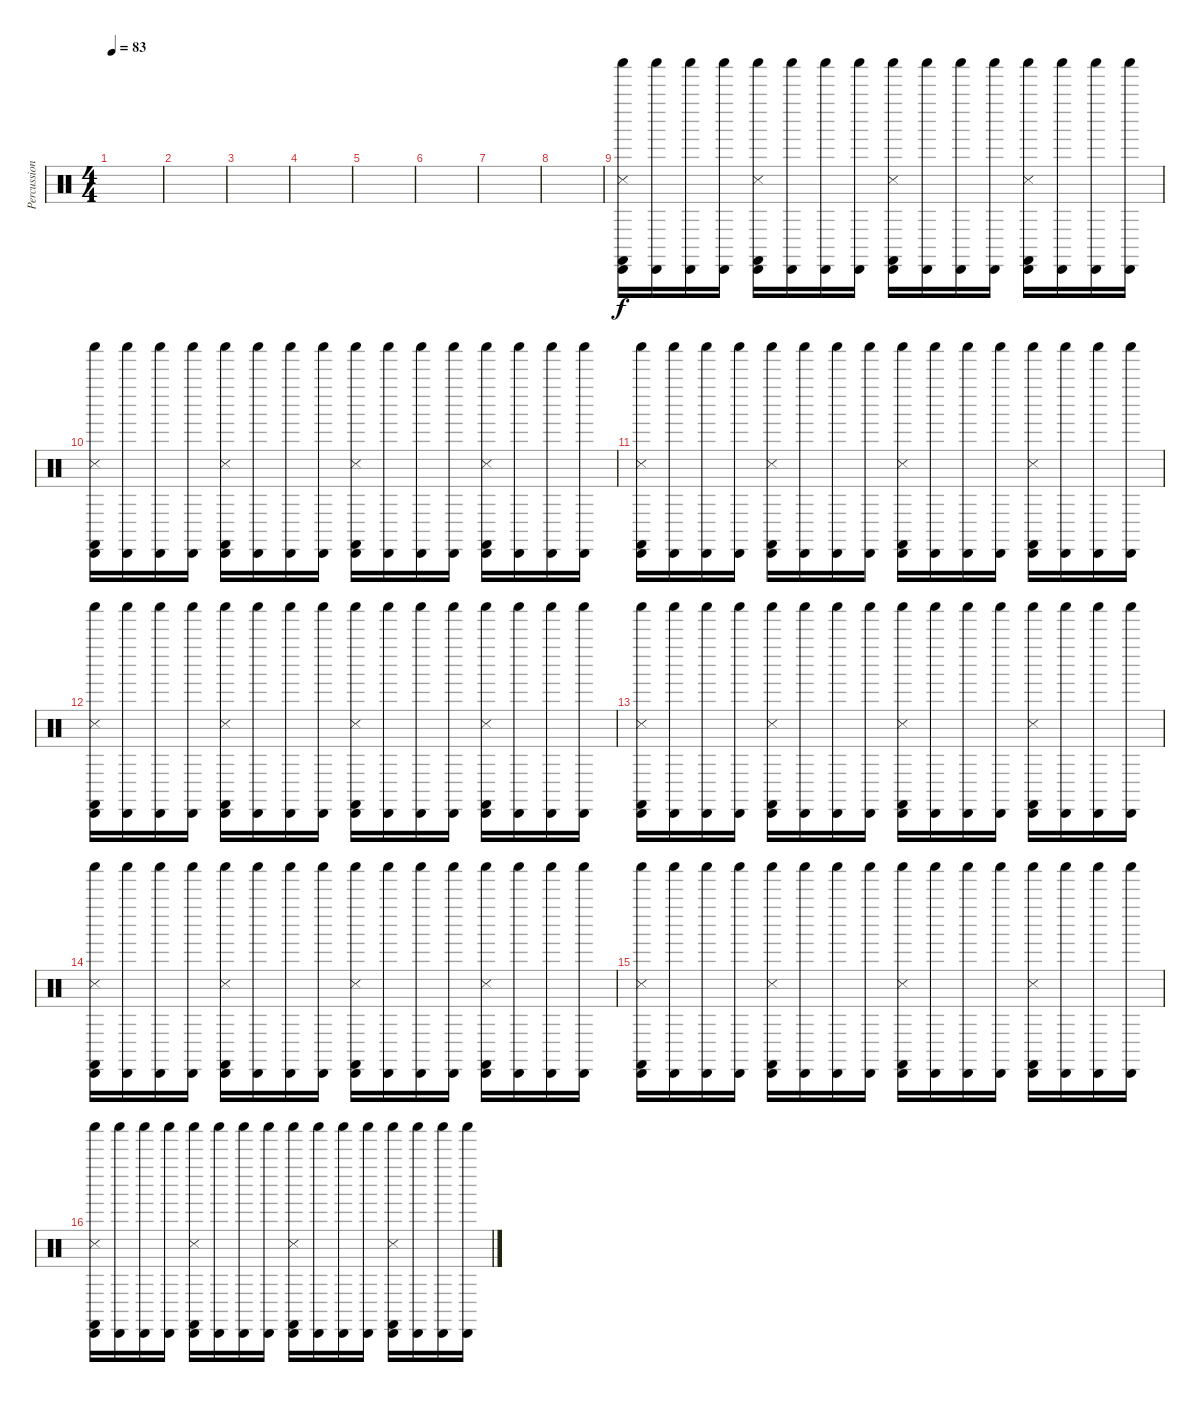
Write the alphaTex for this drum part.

\track ("Percussion" "Percussion") {instrument percussion}
\staff {score}
\articulation defaults
\ts (4 4)
\tempo 83
\clef neutral
\ks c
|
|
|
|
|
|
|
|
("Shaker (hit)" "Castanets (hit)" "Snare (side stick) 3" "Cabasa (hit)").16 ("Shaker (hit)" "Cabasa (hit)").16 ("Shaker (hit)" "Cabasa (hit)").16 ("Shaker (hit)" "Cabasa (hit)").16 ("Shaker (hit)" "Castanets (hit)" "Snare (side stick) 3" "Cabasa (hit)").16 ("Shaker (hit)" "Cabasa (hit)").16 ("Shaker (hit)" "Cabasa (hit)").16 ("Shaker (hit)" "Cabasa (hit)").16 ("Shaker (hit)" "Castanets (hit)" "Snare (side stick) 3" "Cabasa (hit)").16 ("Shaker (hit)" "Cabasa (hit)").16 ("Shaker (hit)" "Cabasa (hit)").16 ("Shaker (hit)" "Cabasa (hit)").16 ("Shaker (hit)" "Castanets (hit)" "Snare (side stick) 3" "Cabasa (hit)").16 ("Shaker (hit)" "Cabasa (hit)").16 ("Shaker (hit)" "Cabasa (hit)").16 ("Shaker (hit)" "Cabasa (hit)").16 |
("Shaker (hit)" "Castanets (hit)" "Snare (side stick) 3" "Cabasa (hit)").16 ("Shaker (hit)" "Cabasa (hit)").16 ("Shaker (hit)" "Cabasa (hit)").16 ("Shaker (hit)" "Cabasa (hit)").16 ("Shaker (hit)" "Castanets (hit)" "Snare (side stick) 3" "Cabasa (hit)").16 ("Shaker (hit)" "Cabasa (hit)").16 ("Shaker (hit)" "Cabasa (hit)").16 ("Shaker (hit)" "Cabasa (hit)").16 ("Shaker (hit)" "Castanets (hit)" "Snare (side stick) 3" "Cabasa (hit)").16 ("Shaker (hit)" "Cabasa (hit)").16 ("Shaker (hit)" "Cabasa (hit)").16 ("Shaker (hit)" "Cabasa (hit)").16 ("Shaker (hit)" "Castanets (hit)" "Snare (side stick) 3" "Cabasa (hit)").16 ("Shaker (hit)" "Cabasa (hit)").16 ("Shaker (hit)" "Cabasa (hit)").16 ("Shaker (hit)" "Cabasa (hit)").16 |
("Shaker (hit)" "Castanets (hit)" "Snare (side stick) 3" "Cabasa (hit)").16 ("Shaker (hit)" "Cabasa (hit)").16 ("Shaker (hit)" "Cabasa (hit)").16 ("Shaker (hit)" "Cabasa (hit)").16 ("Shaker (hit)" "Castanets (hit)" "Snare (side stick) 3" "Cabasa (hit)").16 ("Shaker (hit)" "Cabasa (hit)").16 ("Shaker (hit)" "Cabasa (hit)").16 ("Shaker (hit)" "Cabasa (hit)").16 ("Shaker (hit)" "Castanets (hit)" "Snare (side stick) 3" "Cabasa (hit)").16 ("Shaker (hit)" "Cabasa (hit)").16 ("Shaker (hit)" "Cabasa (hit)").16 ("Shaker (hit)" "Cabasa (hit)").16 ("Shaker (hit)" "Castanets (hit)" "Snare (side stick) 3" "Cabasa (hit)").16 ("Shaker (hit)" "Cabasa (hit)").16 ("Shaker (hit)" "Cabasa (hit)").16 ("Shaker (hit)" "Cabasa (hit)").16 |
("Shaker (hit)" "Castanets (hit)" "Snare (side stick) 3" "Cabasa (hit)").16 ("Shaker (hit)" "Cabasa (hit)").16 ("Shaker (hit)" "Cabasa (hit)").16 ("Shaker (hit)" "Cabasa (hit)").16 ("Shaker (hit)" "Castanets (hit)" "Snare (side stick) 3" "Cabasa (hit)").16 ("Shaker (hit)" "Cabasa (hit)").16 ("Shaker (hit)" "Cabasa (hit)").16 ("Shaker (hit)" "Cabasa (hit)").16 ("Shaker (hit)" "Castanets (hit)" "Snare (side stick) 3" "Cabasa (hit)").16 ("Shaker (hit)" "Cabasa (hit)").16 ("Shaker (hit)" "Cabasa (hit)").16 ("Shaker (hit)" "Cabasa (hit)").16 ("Shaker (hit)" "Castanets (hit)" "Snare (side stick) 3" "Cabasa (hit)").16 ("Shaker (hit)" "Cabasa (hit)").16 ("Shaker (hit)" "Cabasa (hit)").16 ("Shaker (hit)" "Cabasa (hit)").16 |
("Shaker (hit)" "Castanets (hit)" "Snare (side stick) 3" "Cabasa (hit)").16 ("Shaker (hit)" "Cabasa (hit)").16 ("Shaker (hit)" "Cabasa (hit)").16 ("Shaker (hit)" "Cabasa (hit)").16 ("Shaker (hit)" "Castanets (hit)" "Snare (side stick) 3" "Cabasa (hit)").16 ("Shaker (hit)" "Cabasa (hit)").16 ("Shaker (hit)" "Cabasa (hit)").16 ("Shaker (hit)" "Cabasa (hit)").16 ("Shaker (hit)" "Castanets (hit)" "Snare (side stick) 3" "Cabasa (hit)").16 ("Shaker (hit)" "Cabasa (hit)").16 ("Shaker (hit)" "Cabasa (hit)").16 ("Shaker (hit)" "Cabasa (hit)").16 ("Shaker (hit)" "Castanets (hit)" "Snare (side stick) 3" "Cabasa (hit)").16 ("Shaker (hit)" "Cabasa (hit)").16 ("Shaker (hit)" "Cabasa (hit)").16 ("Shaker (hit)" "Cabasa (hit)").16 |
("Shaker (hit)" "Castanets (hit)" "Snare (side stick) 3" "Cabasa (hit)").16 ("Shaker (hit)" "Cabasa (hit)").16 ("Shaker (hit)" "Cabasa (hit)").16 ("Shaker (hit)" "Cabasa (hit)").16 ("Shaker (hit)" "Castanets (hit)" "Snare (side stick) 3" "Cabasa (hit)").16 ("Shaker (hit)" "Cabasa (hit)").16 ("Shaker (hit)" "Cabasa (hit)").16 ("Shaker (hit)" "Cabasa (hit)").16 ("Shaker (hit)" "Castanets (hit)" "Snare (side stick) 3" "Cabasa (hit)").16 ("Shaker (hit)" "Cabasa (hit)").16 ("Shaker (hit)" "Cabasa (hit)").16 ("Shaker (hit)" "Cabasa (hit)").16 ("Shaker (hit)" "Castanets (hit)" "Snare (side stick) 3" "Cabasa (hit)").16 ("Shaker (hit)" "Cabasa (hit)").16 ("Shaker (hit)" "Cabasa (hit)").16 ("Shaker (hit)" "Cabasa (hit)").16 |
("Shaker (hit)" "Castanets (hit)" "Snare (side stick) 3" "Cabasa (hit)").16 ("Shaker (hit)" "Cabasa (hit)").16 ("Shaker (hit)" "Cabasa (hit)").16 ("Shaker (hit)" "Cabasa (hit)").16 ("Shaker (hit)" "Castanets (hit)" "Snare (side stick) 3" "Cabasa (hit)").16 ("Shaker (hit)" "Cabasa (hit)").16 ("Shaker (hit)" "Cabasa (hit)").16 ("Shaker (hit)" "Cabasa (hit)").16 ("Shaker (hit)" "Castanets (hit)" "Snare (side stick) 3" "Cabasa (hit)").16 ("Shaker (hit)" "Cabasa (hit)").16 ("Shaker (hit)" "Cabasa (hit)").16 ("Shaker (hit)" "Cabasa (hit)").16 ("Shaker (hit)" "Castanets (hit)" "Snare (side stick) 3" "Cabasa (hit)").16 ("Shaker (hit)" "Cabasa (hit)").16 ("Shaker (hit)" "Cabasa (hit)").16 ("Shaker (hit)" "Cabasa (hit)").16 |
("Shaker (hit)" "Castanets (hit)" "Snare (side stick) 3" "Cabasa (hit)").16 ("Shaker (hit)" "Cabasa (hit)").16 ("Shaker (hit)" "Cabasa (hit)").16 ("Shaker (hit)" "Cabasa (hit)").16 ("Shaker (hit)" "Castanets (hit)" "Snare (side stick) 3" "Cabasa (hit)").16 ("Shaker (hit)" "Cabasa (hit)").16 ("Shaker (hit)" "Cabasa (hit)").16 ("Shaker (hit)" "Cabasa (hit)").16 ("Shaker (hit)" "Castanets (hit)" "Snare (side stick) 3" "Cabasa (hit)").16 ("Shaker (hit)" "Cabasa (hit)").16 ("Shaker (hit)" "Cabasa (hit)").16 ("Shaker (hit)" "Cabasa (hit)").16 ("Shaker (hit)" "Castanets (hit)" "Snare (side stick) 3" "Cabasa (hit)").16 ("Shaker (hit)" "Cabasa (hit)").16 ("Shaker (hit)" "Cabasa (hit)").16 ("Shaker (hit)" "Cabasa (hit)").16
